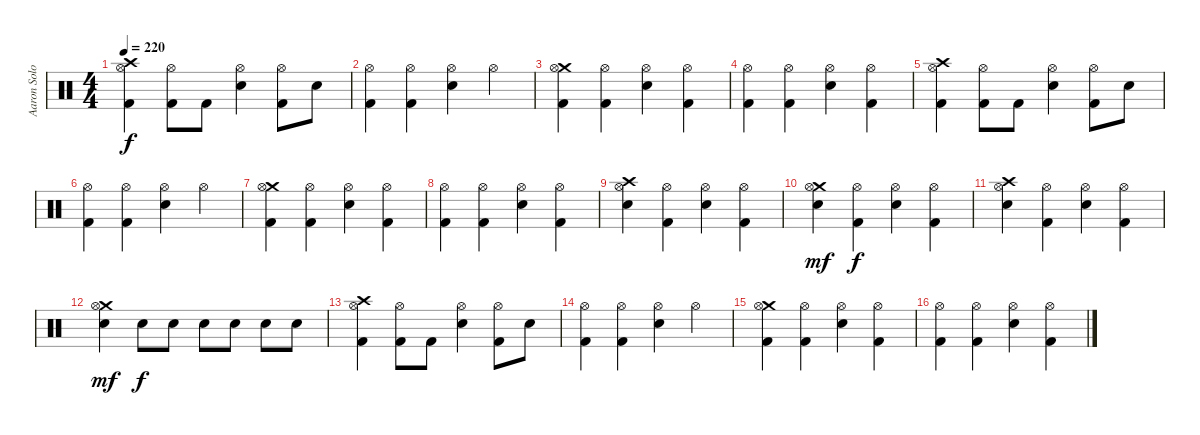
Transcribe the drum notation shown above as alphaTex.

\track ("Aaron Solowoniuk" "Aaron Solo") {instrument percussion}
\staff {score}
\articulation defaults
\ts (4 4)
\tempo 220
\clef neutral
\ks c
("Crash high (hit)" "Hi-Hat (open)" "Kick (hit) 2").4{dy f} ("Hi-Hat (open)" "Kick (hit) 2").8 "Kick (hit) 2".8 ("Hi-Hat (open)" "Snare (hit) 2").4 ("Hi-Hat (open)" "Kick (hit) 2").8 "Snare (hit) 2".8 |
("Hi-Hat (open)" "Kick (hit) 2").4 ("Hi-Hat (open)" "Kick (hit) 2").4 ("Hi-Hat (open)" "Snare (hit) 2").4 "Hi-Hat (open)".4 |
("Crash medium (hit)" "Hi-Hat (open)" "Kick (hit) 2").4 ("Hi-Hat (open)" "Kick (hit) 2").4 ("Hi-Hat (open)" "Snare (hit) 2").4 ("Hi-Hat (open)" "Kick (hit) 2").4 |
("Hi-Hat (open)" "Kick (hit) 2").4 ("Hi-Hat (open)" "Kick (hit) 2").4 ("Hi-Hat (open)" "Snare (hit) 2").4 ("Hi-Hat (open)" "Kick (hit) 2").4 |
("Crash high (hit)" "Hi-Hat (open)" "Kick (hit) 2").4 ("Hi-Hat (open)" "Kick (hit) 2").8 "Kick (hit) 2".8 ("Hi-Hat (open)" "Snare (hit) 2").4 ("Hi-Hat (open)" "Kick (hit) 2").8 "Snare (hit) 2".8 |
("Hi-Hat (open)" "Kick (hit) 2").4 ("Hi-Hat (open)" "Kick (hit) 2").4 ("Hi-Hat (open)" "Snare (hit) 2").4 "Hi-Hat (open)".4 |
("Crash medium (hit)" "Hi-Hat (open)" "Kick (hit) 2").4 ("Hi-Hat (open)" "Kick (hit) 2").4 ("Hi-Hat (open)" "Snare (hit) 2").4 ("Hi-Hat (open)" "Kick (hit) 2").4 |
("Hi-Hat (open)" "Kick (hit) 2").4 ("Hi-Hat (open)" "Kick (hit) 2").4 ("Hi-Hat (open)" "Snare (hit) 2").4 ("Hi-Hat (open)" "Kick (hit) 2").4 |
("Crash high (hit)" "Hi-Hat (open)" "Snare (hit) 2").4 ("Hi-Hat (open)" "Kick (hit) 2").4 ("Hi-Hat (open)" "Snare (hit) 2").4 ("Hi-Hat (open)" "Kick (hit) 2").4 |
("Crash medium (hit)" "Hi-Hat (open)" "Snare (hit) 2").4{dy mf} ("Hi-Hat (open)" "Kick (hit) 2").4{dy f} ("Hi-Hat (open)" "Snare (hit) 2").4 ("Hi-Hat (open)" "Kick (hit) 2").4 |
("Crash high (hit)" "Hi-Hat (open)" "Snare (hit) 2").4 ("Hi-Hat (open)" "Kick (hit) 2").4 ("Hi-Hat (open)" "Snare (hit) 2").4 ("Hi-Hat (open)" "Kick (hit) 2").4 |
("Crash medium (hit)" "Hi-Hat (open)" "Snare (hit) 2").4{dy mf} "Snare (hit) 2".8{dy f} "Snare (hit) 2".8 "Snare (hit) 2".8 "Snare (hit) 2".8 "Snare (hit) 2".8 "Snare (hit) 2".8 |
("Crash high (hit)" "Hi-Hat (open)" "Kick (hit) 2").4 ("Hi-Hat (open)" "Kick (hit) 2").8 "Kick (hit) 2".8 ("Hi-Hat (open)" "Snare (hit) 2").4 ("Hi-Hat (open)" "Kick (hit) 2").8 "Snare (hit) 2".8 |
("Hi-Hat (open)" "Kick (hit) 2").4 ("Hi-Hat (open)" "Kick (hit) 2").4 ("Hi-Hat (open)" "Snare (hit) 2").4 "Hi-Hat (open)".4 |
("Crash medium (hit)" "Hi-Hat (open)" "Kick (hit) 2").4 ("Hi-Hat (open)" "Kick (hit) 2").4 ("Hi-Hat (open)" "Snare (hit) 2").4 ("Hi-Hat (open)" "Kick (hit) 2").4 |
("Hi-Hat (open)" "Kick (hit) 2").4 ("Hi-Hat (open)" "Kick (hit) 2").4 ("Hi-Hat (open)" "Snare (hit) 2").4 ("Hi-Hat (open)" "Kick (hit) 2").4
